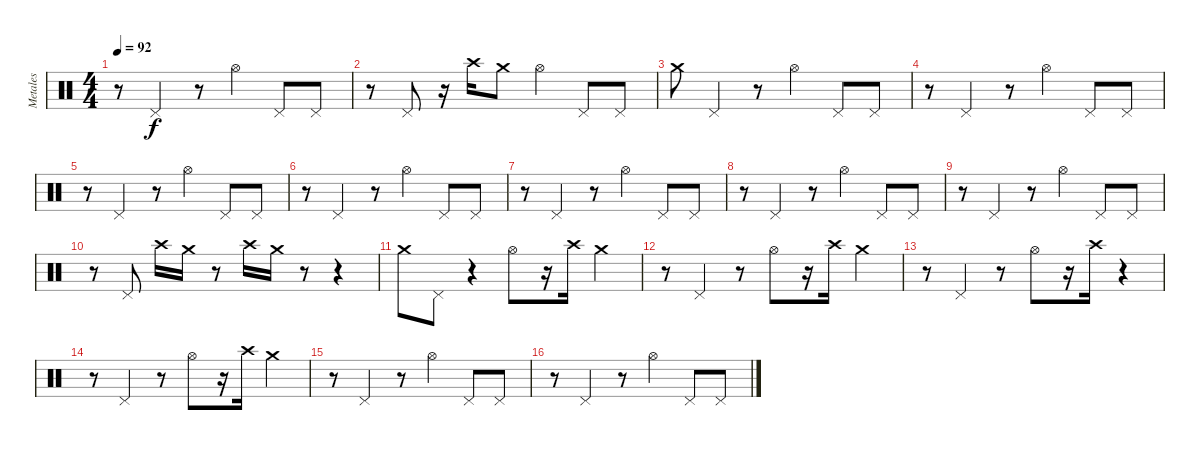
\track ("Metales" "Metales") {instrument percussion}
\staff {score}
\articulation defaults
\ts (4 4)
\tempo 92
\clef neutral
\ks c
r.8{dy f} "Pedal Hi-Hat (hit)".4 r.8 "Hi-Hat (open)".4 "Pedal Hi-Hat (hit)".8 "Pedal Hi-Hat (hit)".8 |
r.8 "Pedal Hi-Hat (hit)".8 r.16 "Crash high (hit)".16 "Crash medium (hit)".8 "Hi-Hat (open)".4 "Pedal Hi-Hat (hit)".8 "Pedal Hi-Hat (hit)".8 |
"Crash medium (hit)".8 "Pedal Hi-Hat (hit)".4 r.8 "Hi-Hat (open)".4 "Pedal Hi-Hat (hit)".8 "Pedal Hi-Hat (hit)".8 |
r.8 "Pedal Hi-Hat (hit)".4 r.8 "Hi-Hat (open)".4 "Pedal Hi-Hat (hit)".8 "Pedal Hi-Hat (hit)".8 |
r.8 "Pedal Hi-Hat (hit)".4 r.8 "Hi-Hat (open)".4 "Pedal Hi-Hat (hit)".8 "Pedal Hi-Hat (hit)".8 |
r.8 "Pedal Hi-Hat (hit)".4 r.8 "Hi-Hat (open)".4 "Pedal Hi-Hat (hit)".8 "Pedal Hi-Hat (hit)".8 |
r.8 "Pedal Hi-Hat (hit)".4 r.8 "Hi-Hat (open)".4 "Pedal Hi-Hat (hit)".8 "Pedal Hi-Hat (hit)".8 |
r.8 "Pedal Hi-Hat (hit)".4 r.8 "Hi-Hat (open)".4 "Pedal Hi-Hat (hit)".8 "Pedal Hi-Hat (hit)".8 |
r.8 "Pedal Hi-Hat (hit)".4 r.8 "Hi-Hat (open)".4 "Pedal Hi-Hat (hit)".8 "Pedal Hi-Hat (hit)".8 |
r.8 "Pedal Hi-Hat (hit)".8 "Crash high (hit)".16 "Crash medium (hit)".16 r.8 "Crash high (hit)".16 "Crash medium (hit)".16 r.8 r.4 |
"Crash medium (hit)".8 "Pedal Hi-Hat (hit)".8 r.4 "Hi-Hat (open)".8 r.16 "Crash high (hit)".16 "Crash medium (hit)".4 |
r.8 "Pedal Hi-Hat (hit)".4 r.8 "Hi-Hat (open)".8 r.16 "Crash high (hit)".16 "Crash medium (hit)".4 |
r.8 "Pedal Hi-Hat (hit)".4 r.8 "Hi-Hat (open)".8 r.16 "Crash high (hit)".16 r.4 |
r.8 "Pedal Hi-Hat (hit)".4 r.8 "Hi-Hat (open)".8 r.16 "Crash high (hit)".16 "Crash medium (hit)".4 |
r.8 "Pedal Hi-Hat (hit)".4 r.8 "Hi-Hat (open)".4 "Pedal Hi-Hat (hit)".8 "Pedal Hi-Hat (hit)".8 |
r.8 "Pedal Hi-Hat (hit)".4 r.8 "Hi-Hat (open)".4 "Pedal Hi-Hat (hit)".8 "Pedal Hi-Hat (hit)".8
